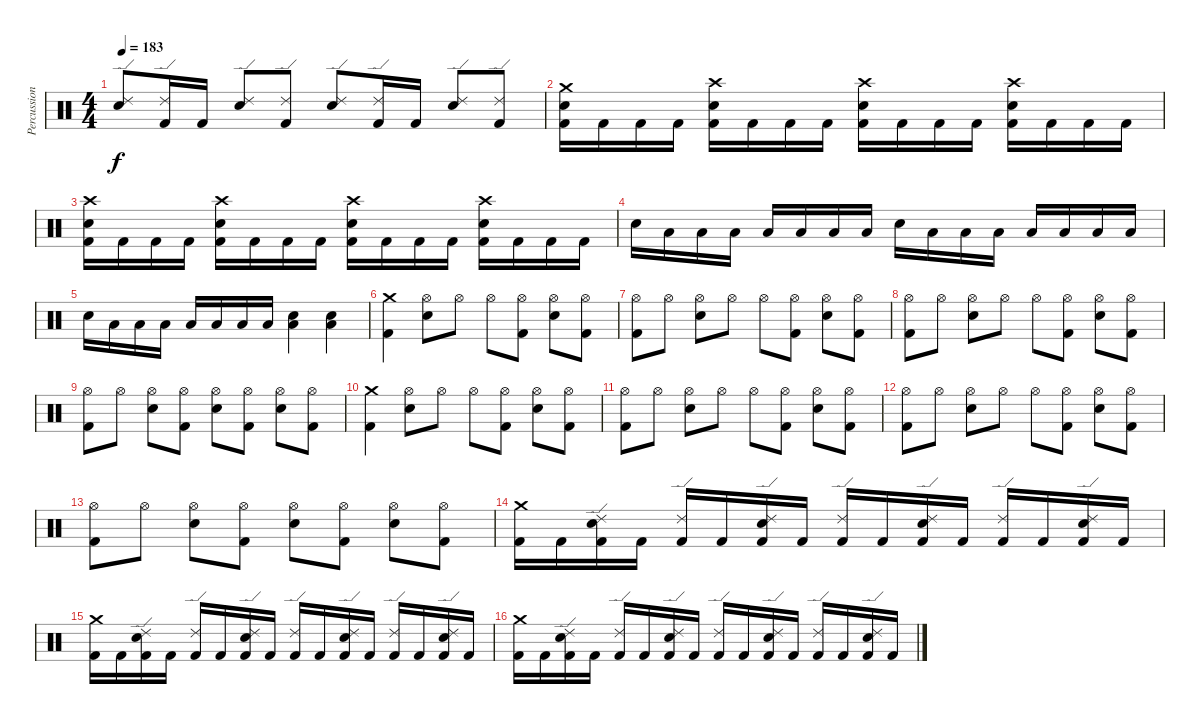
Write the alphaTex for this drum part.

\track ("Percussion" "Percussion") {instrument percussion}
\staff {score}
\articulation defaults
\ts (4 4)
\tempo 183
\clef neutral
\ks c
("Ride (edge) 2" "Snare (hit) 2").8{dy f} ("Ride (edge) 2" "Kick (hit) 2").16 "Kick (hit) 2".16 ("Ride (edge) 2" "Snare (hit) 2").8 ("Ride (edge) 2" "Kick (hit) 2").8 ("Ride (edge) 2" "Snare (hit) 2").8 ("Ride (edge) 2" "Kick (hit) 2").16 "Kick (hit) 2".16 ("Ride (edge) 2" "Snare (hit) 2").8 ("Ride (edge) 2" "Kick (hit) 2").8 |
("Crash medium (hit)" "Snare (hit) 2" "Kick (hit) 2").16 "Kick (hit) 2".16 "Kick (hit) 2".16 "Kick (hit) 2".16 ("Crash high (hit)" "Snare (hit) 2" "Kick (hit) 2").16 "Kick (hit) 2".16 "Kick (hit) 2".16 "Kick (hit) 2".16 ("Crash high (hit)" "Snare (hit) 2" "Kick (hit) 2").16 "Kick (hit) 2".16 "Kick (hit) 2".16 "Kick (hit) 2".16 ("Crash high (hit)" "Snare (hit) 2" "Kick (hit) 2").16 "Kick (hit) 2".16 "Kick (hit) 2".16 "Kick (hit) 2".16 |
("Crash high (hit)" "Snare (hit) 2" "Kick (hit) 2").16 "Kick (hit) 2".16 "Kick (hit) 2".16 "Kick (hit) 2".16 ("Crash high (hit)" "Snare (hit) 2" "Kick (hit) 2").16 "Kick (hit) 2".16 "Kick (hit) 2".16 "Kick (hit) 2".16 ("Crash high (hit)" "Snare (hit) 2" "Kick (hit) 2").16 "Kick (hit) 2".16 "Kick (hit) 2".16 "Kick (hit) 2".16 ("Crash high (hit)" "Snare (hit) 2" "Kick (hit) 2").16 "Kick (hit) 2".16 "Kick (hit) 2".16 "Kick (hit) 2".16 |
"Snare (hit) 2".16 "Low Tom (hit)".16 "Low Tom (hit)".16 "Low Tom (hit)".16 "Low Tom (hit)".16 "Low Tom (hit)".16 "Low Tom (hit)".16 "Low Tom (hit)".16 "Snare (hit) 2".16 "Low Tom (hit)".16 "Low Tom (hit)".16 "Low Tom (hit)".16 "Low Tom (hit)".16 "Low Tom (hit)".16 "Low Tom (hit)".16 "Low Tom (hit)".16 |
"Snare (hit) 2".16 "Low Tom (hit)".16 "Low Tom (hit)".16 "Low Tom (hit)".16 "Low Tom (hit)".16 "Low Tom (hit)".16 "Low Tom (hit)".16 "Low Tom (hit)".16 ("Low Floor Tom (hit)" "Snare (hit) 2").4 ("Low Floor Tom (hit)" "Snare (hit) 2").4 |
("Crash medium (hit)" "Kick (hit) 2").4 ("Hi-Hat (open)" "Snare (hit) 2").8 "Hi-Hat (open)".8 "Hi-Hat (open)".8 ("Hi-Hat (open)" "Kick (hit) 2").8 ("Hi-Hat (open)" "Snare (hit) 2").8 ("Hi-Hat (open)" "Kick (hit) 2").8 |
("Hi-Hat (open)" "Kick (hit) 2").8 "Hi-Hat (open)".8 ("Hi-Hat (open)" "Snare (hit) 2").8 "Hi-Hat (open)".8 "Hi-Hat (open)".8 ("Hi-Hat (open)" "Kick (hit) 2").8 ("Hi-Hat (open)" "Snare (hit) 2").8 ("Hi-Hat (open)" "Kick (hit) 2").8 |
("Hi-Hat (open)" "Kick (hit) 2").8 "Hi-Hat (open)".8 ("Hi-Hat (open)" "Snare (hit) 2").8 "Hi-Hat (open)".8 "Hi-Hat (open)".8 ("Hi-Hat (open)" "Kick (hit) 2").8 ("Hi-Hat (open)" "Snare (hit) 2").8 ("Hi-Hat (open)" "Kick (hit) 2").8 |
("Hi-Hat (open)" "Kick (hit) 2").8 "Hi-Hat (open)".8 ("Hi-Hat (open)" "Snare (hit) 2").8 ("Hi-Hat (open)" "Kick (hit) 2").8 ("Hi-Hat (open)" "Snare (hit) 2").8 ("Hi-Hat (open)" "Kick (hit) 2").8 ("Hi-Hat (open)" "Snare (hit) 2").8 ("Hi-Hat (open)" "Kick (hit) 2").8 |
("Crash medium (hit)" "Kick (hit) 2").4 ("Hi-Hat (open)" "Snare (hit) 2").8 "Hi-Hat (open)".8 "Hi-Hat (open)".8 ("Hi-Hat (open)" "Kick (hit) 2").8 ("Hi-Hat (open)" "Snare (hit) 2").8 ("Hi-Hat (open)" "Kick (hit) 2").8 |
("Hi-Hat (open)" "Kick (hit) 2").8 "Hi-Hat (open)".8 ("Hi-Hat (open)" "Snare (hit) 2").8 "Hi-Hat (open)".8 "Hi-Hat (open)".8 ("Hi-Hat (open)" "Kick (hit) 2").8 ("Hi-Hat (open)" "Snare (hit) 2").8 ("Hi-Hat (open)" "Kick (hit) 2").8 |
("Hi-Hat (open)" "Kick (hit) 2").8 "Hi-Hat (open)".8 ("Hi-Hat (open)" "Snare (hit) 2").8 "Hi-Hat (open)".8 "Hi-Hat (open)".8 ("Hi-Hat (open)" "Kick (hit) 2").8 ("Hi-Hat (open)" "Snare (hit) 2").8 ("Hi-Hat (open)" "Kick (hit) 2").8 |
("Hi-Hat (open)" "Kick (hit) 2").8 "Hi-Hat (open)".8 ("Hi-Hat (open)" "Snare (hit) 2").8 ("Hi-Hat (open)" "Kick (hit) 2").8 ("Hi-Hat (open)" "Snare (hit) 2").8 ("Hi-Hat (open)" "Kick (hit) 2").8 ("Hi-Hat (open)" "Snare (hit) 2").8 ("Hi-Hat (open)" "Kick (hit) 2").8 |
("Crash medium (hit)" "Kick (hit) 2").16 "Kick (hit) 2".16 ("Ride (edge) 2" "Snare (hit) 2" "Kick (hit) 2").16 "Kick (hit) 2".16 ("Ride (edge) 2" "Kick (hit) 2").16 "Kick (hit) 2".16 ("Ride (edge) 2" "Snare (hit) 2" "Kick (hit) 2").16 "Kick (hit) 2".16 ("Ride (edge) 2" "Kick (hit) 2").16 "Kick (hit) 2".16 ("Ride (edge) 2" "Snare (hit) 2" "Kick (hit) 2").16 "Kick (hit) 2".16 ("Ride (edge) 2" "Kick (hit) 2").16 "Kick (hit) 2".16 ("Ride (edge) 2" "Snare (hit) 2" "Kick (hit) 2").16 "Kick (hit) 2".16 |
("Crash medium (hit)" "Kick (hit) 2").16 "Kick (hit) 2".16 ("Ride (edge) 2" "Snare (hit) 2" "Kick (hit) 2").16 "Kick (hit) 2".16 ("Ride (edge) 2" "Kick (hit) 2").16 "Kick (hit) 2".16 ("Ride (edge) 2" "Snare (hit) 2" "Kick (hit) 2").16 "Kick (hit) 2".16 ("Ride (edge) 2" "Kick (hit) 2").16 "Kick (hit) 2".16 ("Ride (edge) 2" "Snare (hit) 2" "Kick (hit) 2").16 "Kick (hit) 2".16 ("Ride (edge) 2" "Kick (hit) 2").16 "Kick (hit) 2".16 ("Ride (edge) 2" "Snare (hit) 2" "Kick (hit) 2").16 "Kick (hit) 2".16 |
("Crash medium (hit)" "Kick (hit) 2").16 "Kick (hit) 2".16 ("Ride (edge) 2" "Snare (hit) 2" "Kick (hit) 2").16 "Kick (hit) 2".16 ("Ride (edge) 2" "Kick (hit) 2").16 "Kick (hit) 2".16 ("Ride (edge) 2" "Snare (hit) 2" "Kick (hit) 2").16 "Kick (hit) 2".16 ("Ride (edge) 2" "Kick (hit) 2").16 "Kick (hit) 2".16 ("Ride (edge) 2" "Snare (hit) 2" "Kick (hit) 2").16 "Kick (hit) 2".16 ("Ride (edge) 2" "Kick (hit) 2").16 "Kick (hit) 2".16 ("Ride (edge) 2" "Snare (hit) 2" "Kick (hit) 2").16 "Kick (hit) 2".16
